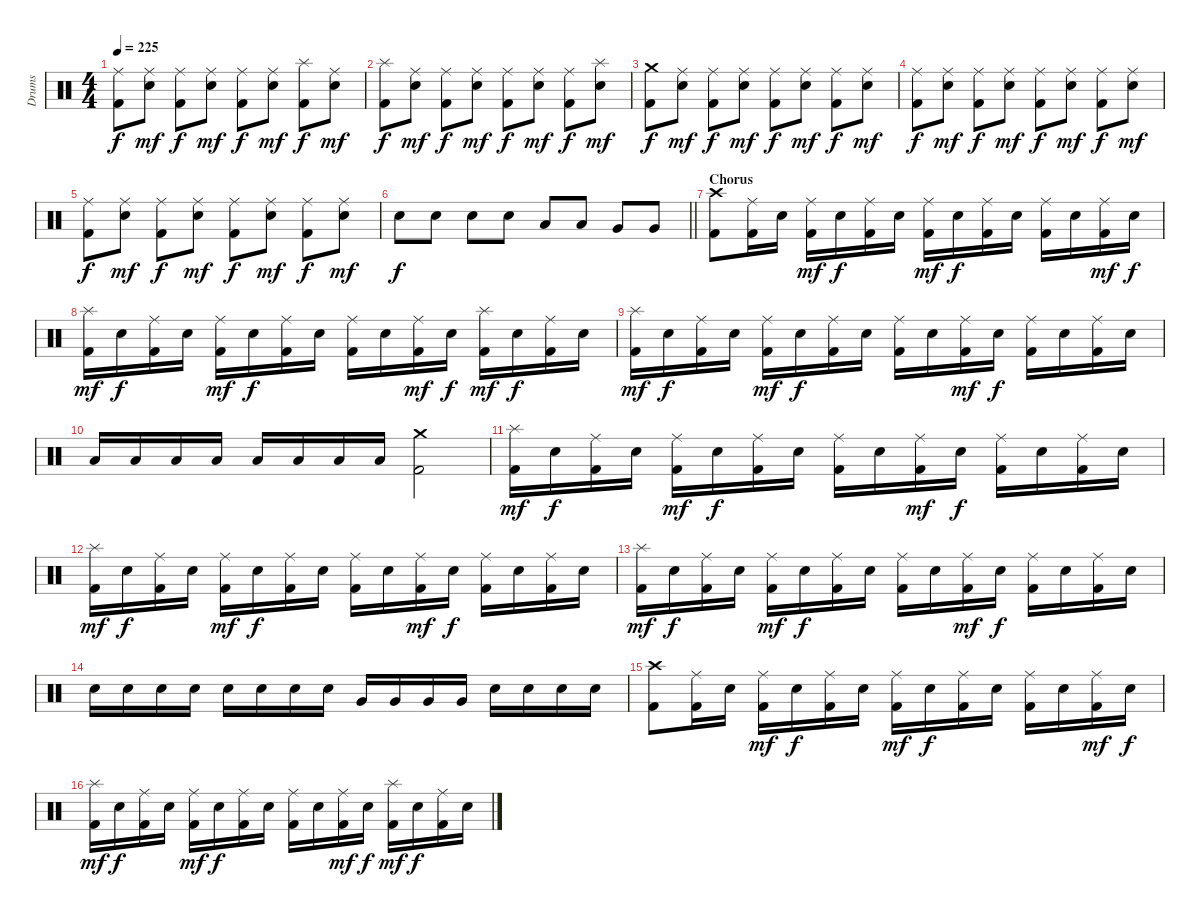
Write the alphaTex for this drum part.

\track ("Drums" "Drums") {instrument percussion}
\staff {score}
\articulation defaults
\ts (4 4)
\tempo 225
\clef neutral
\ks c
("Ride (middle)" "Kick (hit) 2").8{dy f} ("Ride (middle)" "Snare (hit) 2").8{dy mf} ("Ride (middle)" "Kick (hit) 2").8{dy f} ("Ride (middle)" "Snare (hit) 2").8{dy mf} ("Ride (middle)" "Kick (hit) 2").8{dy f} ("Ride (middle)" "Snare (hit) 2").8{dy mf} ("Splash (hit)" "Kick (hit) 2").8{dy f} ("Ride (middle)" "Snare (hit) 2").8{dy mf} |
("Splash (hit)" "Kick (hit) 2").8{dy f} ("Ride (middle)" "Snare (hit) 2").8{dy mf} ("Ride (middle)" "Kick (hit) 2").8{dy f} ("Ride (middle)" "Snare (hit) 2").8{dy mf} ("Ride (middle)" "Kick (hit) 2").8{dy f} ("Ride (middle)" "Snare (hit) 2").8{dy mf} ("Ride (middle)" "Kick (hit) 2").8{dy f} ("Splash (hit)" "Snare (hit) 2").8{dy mf} |
("Crash medium (hit)" "Kick (hit) 2").8{dy f} ("Ride (middle)" "Snare (hit) 2").8{dy mf} ("Ride (middle)" "Kick (hit) 2").8{dy f} ("Ride (middle)" "Snare (hit) 2").8{dy mf} ("Ride (middle)" "Kick (hit) 2").8{dy f} ("Ride (middle)" "Snare (hit) 2").8{dy mf} ("Ride (middle)" "Kick (hit) 2").8{dy f} ("Ride (middle)" "Snare (hit) 2").8{dy mf} |
("Ride (middle)" "Kick (hit) 2").8{dy f} ("Ride (middle)" "Snare (hit) 2").8{dy mf} ("Ride (middle)" "Kick (hit) 2").8{dy f} ("Ride (middle)" "Snare (hit) 2").8{dy mf} ("Ride (middle)" "Kick (hit) 2").8{dy f} ("Ride (middle)" "Snare (hit) 2").8{dy mf} ("Ride (middle)" "Kick (hit) 2").8{dy f} ("Ride (middle)" "Snare (hit) 2").8{dy mf} |
("Ride (middle)" "Kick (hit) 2").8{dy f} ("Ride (middle)" "Snare (hit) 2").8{dy mf} ("Ride (middle)" "Kick (hit) 2").8{dy f} ("Ride (middle)" "Snare (hit) 2").8{dy mf} ("Ride (middle)" "Kick (hit) 2").8{dy f} ("Ride (middle)" "Snare (hit) 2").8{dy mf} ("Ride (middle)" "Kick (hit) 2").8{dy f} ("Ride (middle)" "Snare (hit) 2").8{dy mf} |
\barLineRight lightlight "Snare (hit) 2".8{dy f} "Snare (hit) 2".8 "Snare (hit) 2".8 "Snare (hit) 2".8 "Low Tom (hit)".8 "Low Tom (hit)".8 "Very Low Tom (hit)".8 "Very Low Tom (hit)".8
|
\section ("" "Chorus")
("Crash high (hit)" "Kick (hit) 2").8 ("Ride (middle)" "Kick (hit) 2").16 "Snare (hit) 2".16 ("Ride (middle)" "Kick (hit) 2").16{dy mf} "Snare (hit) 2".16{dy f} ("Ride (middle)" "Kick (hit) 2").16 "Snare (hit) 2".16 ("Ride (middle)" "Kick (hit) 2").16{dy mf} "Snare (hit) 2".16{dy f} ("Ride (middle)" "Kick (hit) 2").16 "Snare (hit) 2".16 ("Ride (middle)" "Kick (hit) 2").16 "Snare (hit) 2".16 ("Ride (middle)" "Kick (hit) 2").16{dy mf} "Snare (hit) 2".16{dy f} |
("Splash (hit)" "Kick (hit) 2").16{dy mf} "Snare (hit) 2".16{dy f} ("Ride (middle)" "Kick (hit) 2").16 "Snare (hit) 2".16 ("Ride (middle)" "Kick (hit) 2").16{dy mf} "Snare (hit) 2".16{dy f} ("Ride (middle)" "Kick (hit) 2").16 "Snare (hit) 2".16 ("Ride (middle)" "Kick (hit) 2").16 "Snare (hit) 2".16 ("Ride (middle)" "Kick (hit) 2").16{dy mf} "Snare (hit) 2".16{dy f} ("Splash (hit)" "Kick (hit) 2").16{dy mf} "Snare (hit) 2".16{dy f} ("Ride (middle)" "Kick (hit) 2").16 "Snare (hit) 2".16 |
("Splash (hit)" "Kick (hit) 2").16{dy mf} "Snare (hit) 2".16{dy f} ("Ride (middle)" "Kick (hit) 2").16 "Snare (hit) 2".16 ("Ride (middle)" "Kick (hit) 2").16{dy mf} "Snare (hit) 2".16{dy f} ("Ride (middle)" "Kick (hit) 2").16 "Snare (hit) 2".16 ("Ride (middle)" "Kick (hit) 2").16 "Snare (hit) 2".16 ("Ride (middle)" "Kick (hit) 2").16{dy mf} "Snare (hit) 2".16{dy f} ("Ride (middle)" "Kick (hit) 2").16 "Snare (hit) 2".16 ("Ride (middle)" "Kick (hit) 2").16 "Snare (hit) 2".16 |
"Low Tom (hit)".16 "Low Tom (hit)".16 "Low Tom (hit)".16 "Low Tom (hit)".16 "Low Tom (hit)".16 "Low Tom (hit)".16 "Low Tom (hit)".16 "Low Tom (hit)".16 ("Crash medium (hit)" "Kick (hit) 2").2 |
("Splash (hit)" "Kick (hit) 2").16{dy mf} "Snare (hit) 2".16{dy f} ("Ride (middle)" "Kick (hit) 2").16 "Snare (hit) 2".16 ("Ride (middle)" "Kick (hit) 2").16{dy mf} "Snare (hit) 2".16{dy f} ("Ride (middle)" "Kick (hit) 2").16 "Snare (hit) 2".16 ("Ride (middle)" "Kick (hit) 2").16 "Snare (hit) 2".16 ("Ride (middle)" "Kick (hit) 2").16{dy mf} "Snare (hit) 2".16{dy f} ("Ride (middle)" "Kick (hit) 2").16 "Snare (hit) 2".16 ("Ride (middle)" "Kick (hit) 2").16 "Snare (hit) 2".16 |
("Splash (hit)" "Kick (hit) 2").16{dy mf} "Snare (hit) 2".16{dy f} ("Ride (middle)" "Kick (hit) 2").16 "Snare (hit) 2".16 ("Ride (middle)" "Kick (hit) 2").16{dy mf} "Snare (hit) 2".16{dy f} ("Ride (middle)" "Kick (hit) 2").16 "Snare (hit) 2".16 ("Ride (middle)" "Kick (hit) 2").16 "Snare (hit) 2".16 ("Ride (middle)" "Kick (hit) 2").16{dy mf} "Snare (hit) 2".16{dy f} ("Ride (middle)" "Kick (hit) 2").16 "Snare (hit) 2".16 ("Ride (middle)" "Kick (hit) 2").16 "Snare (hit) 2".16 |
("Splash (hit)" "Kick (hit) 2").16{dy mf} "Snare (hit) 2".16{dy f} ("Ride (middle)" "Kick (hit) 2").16 "Snare (hit) 2".16 ("Ride (middle)" "Kick (hit) 2").16{dy mf} "Snare (hit) 2".16{dy f} ("Ride (middle)" "Kick (hit) 2").16 "Snare (hit) 2".16 ("Ride (middle)" "Kick (hit) 2").16 "Snare (hit) 2".16 ("Ride (middle)" "Kick (hit) 2").16{dy mf} "Snare (hit) 2".16{dy f} ("Ride (middle)" "Kick (hit) 2").16 "Snare (hit) 2".16 ("Ride (middle)" "Kick (hit) 2").16 "Snare (hit) 2".16 |
"Snare (hit) 2".16 "Snare (hit) 2".16 "Snare (hit) 2".16 "Snare (hit) 2".16 "Snare (hit) 2".16 "Snare (hit) 2".16 "Snare (hit) 2".16 "Snare (hit) 2".16 "Very Low Tom (hit)".16 "Very Low Tom (hit)".16 "Very Low Tom (hit)".16 "Very Low Tom (hit)".16 "Snare (hit) 2".16 "Snare (hit) 2".16 "Snare (hit) 2".16 "Snare (hit) 2".16 |
("Crash high (hit)" "Kick (hit) 2").8 ("Ride (middle)" "Kick (hit) 2").16 "Snare (hit) 2".16 ("Ride (middle)" "Kick (hit) 2").16{dy mf} "Snare (hit) 2".16{dy f} ("Ride (middle)" "Kick (hit) 2").16 "Snare (hit) 2".16 ("Ride (middle)" "Kick (hit) 2").16{dy mf} "Snare (hit) 2".16{dy f} ("Ride (middle)" "Kick (hit) 2").16 "Snare (hit) 2".16 ("Ride (middle)" "Kick (hit) 2").16 "Snare (hit) 2".16 ("Ride (middle)" "Kick (hit) 2").16{dy mf} "Snare (hit) 2".16{dy f} |
("Splash (hit)" "Kick (hit) 2").16{dy mf} "Snare (hit) 2".16{dy f} ("Ride (middle)" "Kick (hit) 2").16 "Snare (hit) 2".16 ("Ride (middle)" "Kick (hit) 2").16{dy mf} "Snare (hit) 2".16{dy f} ("Ride (middle)" "Kick (hit) 2").16 "Snare (hit) 2".16 ("Ride (middle)" "Kick (hit) 2").16 "Snare (hit) 2".16 ("Ride (middle)" "Kick (hit) 2").16{dy mf} "Snare (hit) 2".16{dy f} ("Splash (hit)" "Kick (hit) 2").16{dy mf} "Snare (hit) 2".16{dy f} ("Ride (middle)" "Kick (hit) 2").16 "Snare (hit) 2".16
